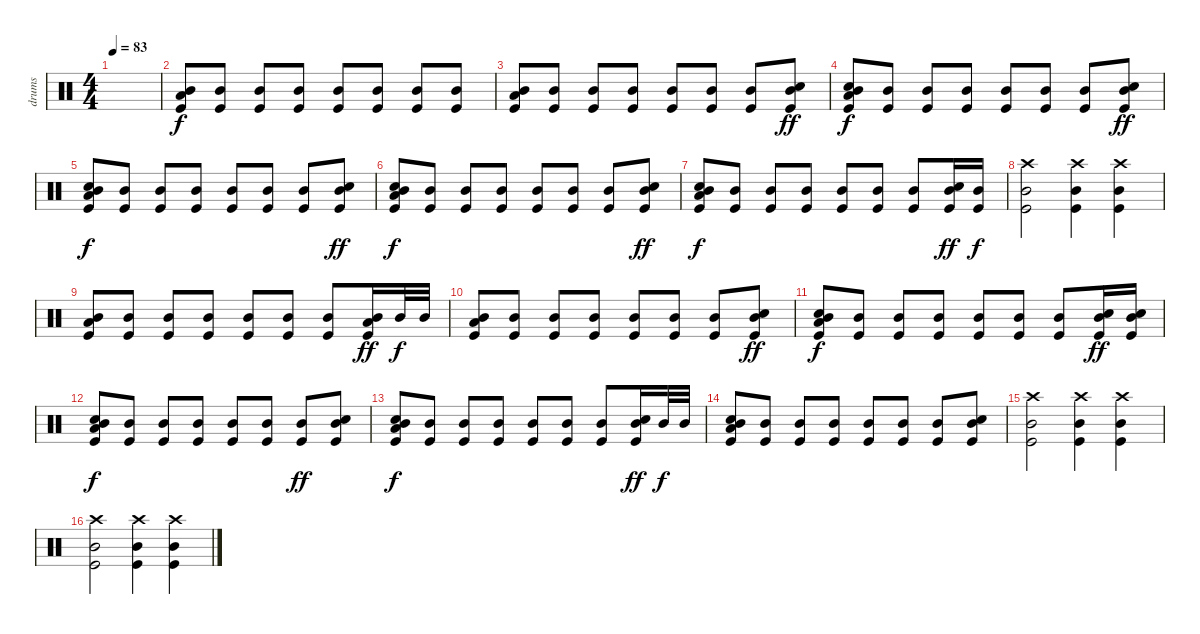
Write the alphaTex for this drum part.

\track ("drums" "drums") {instrument percussion}
\staff {score}
\articulation defaults
\ts (4 4)
\tempo 83
\clef neutral
\ks c
|
("Kick (hit)" "Mid Tom (hit)" "Low Tom (hit)").8 ("Kick (hit)" "Mid Tom (hit)").8 ("Kick (hit)" "Mid Tom (hit)").8 ("Kick (hit)" "Mid Tom (hit)").8 ("Kick (hit)" "Mid Tom (hit)").8 ("Kick (hit)" "Mid Tom (hit)").8 ("Kick (hit)" "Mid Tom (hit)").8 ("Kick (hit)" "Mid Tom (hit)").8 |
("Kick (hit)" "Mid Tom (hit)" "Low Tom (hit)").8 ("Kick (hit)" "Mid Tom (hit)").8 ("Kick (hit)" "Mid Tom (hit)").8 ("Kick (hit)" "Mid Tom (hit)").8 ("Kick (hit)" "Mid Tom (hit)").8 ("Kick (hit)" "Mid Tom (hit)").8 ("Kick (hit)" "Mid Tom (hit)").8 ("Kick (hit)" "Mid Tom (hit)" "Snare (hit) 2").8{dy ff} |
("Kick (hit)" "Mid Tom (hit)" "Low Tom (hit)" "Snare (hit) 2").8{dy f} ("Kick (hit)" "Mid Tom (hit)").8 ("Kick (hit)" "Mid Tom (hit)").8 ("Kick (hit)" "Mid Tom (hit)").8 ("Kick (hit)" "Mid Tom (hit)").8 ("Kick (hit)" "Mid Tom (hit)").8 ("Kick (hit)" "Mid Tom (hit)").8 ("Kick (hit)" "Mid Tom (hit)" "Snare (hit) 2").8{dy ff} |
("Kick (hit)" "Mid Tom (hit)" "Snare (hit) 2" "Low Tom (hit)").8{dy f} ("Kick (hit)" "Mid Tom (hit)").8 ("Kick (hit)" "Mid Tom (hit)").8 ("Kick (hit)" "Mid Tom (hit)").8 ("Kick (hit)" "Mid Tom (hit)").8 ("Kick (hit)" "Mid Tom (hit)").8 ("Kick (hit)" "Mid Tom (hit)").8 ("Kick (hit)" "Mid Tom (hit)" "Snare (hit) 2").8{dy ff} |
("Kick (hit)" "Mid Tom (hit)" "Low Tom (hit)" "Snare (hit) 2").8{dy f} ("Kick (hit)" "Mid Tom (hit)").8 ("Kick (hit)" "Mid Tom (hit)").8 ("Kick (hit)" "Mid Tom (hit)").8 ("Kick (hit)" "Mid Tom (hit)").8 ("Kick (hit)" "Mid Tom (hit)").8 ("Kick (hit)" "Mid Tom (hit)").8 ("Kick (hit)" "Mid Tom (hit)" "Snare (hit) 2").8{dy ff} |
("Kick (hit)" "Mid Tom (hit)" "Low Tom (hit)" "Snare (hit) 2").8{dy f} ("Kick (hit)" "Mid Tom (hit)").8 ("Kick (hit)" "Mid Tom (hit)").8 ("Kick (hit)" "Mid Tom (hit)").8 ("Kick (hit)" "Mid Tom (hit)").8 ("Kick (hit)" "Mid Tom (hit)").8 ("Kick (hit)" "Mid Tom (hit)").8 ("Kick (hit)" "Mid Tom (hit)" "Snare (hit) 2").16{dy ff} ("Kick (hit)" "Mid Tom (hit)").16{dy f} |
("Crash high (hit)" "Mid Tom (hit)" "Kick (hit)").2 ("Crash high (hit)" "Mid Tom (hit)" "Kick (hit)").4 ("Crash high (hit)" "Mid Tom (hit)" "Kick (hit)").4 |
("Kick (hit)" "Mid Tom (hit)" "Low Tom (hit)").8 ("Kick (hit)" "Mid Tom (hit)").8 ("Kick (hit)" "Mid Tom (hit)").8 ("Kick (hit)" "Mid Tom (hit)").8 ("Kick (hit)" "Mid Tom (hit)").8 ("Kick (hit)" "Mid Tom (hit)").8 ("Kick (hit)" "Mid Tom (hit)").8 ("Kick (hit)" "Mid Tom (hit)" "Low Tom (hit)").16{dy ff} "Mid Tom (hit)".32{dy f} "Mid Tom (hit)".32 |
("Kick (hit)" "Mid Tom (hit)" "Low Tom (hit)").8 ("Kick (hit)" "Mid Tom (hit)").8 ("Kick (hit)" "Mid Tom (hit)").8 ("Kick (hit)" "Mid Tom (hit)").8 ("Kick (hit)" "Mid Tom (hit)").8 ("Kick (hit)" "Mid Tom (hit)").8 ("Kick (hit)" "Mid Tom (hit)").8 ("Kick (hit)" "Mid Tom (hit)" "Snare (hit) 2").8{dy ff} |
("Kick (hit)" "Mid Tom (hit)" "Low Tom (hit)" "Snare (hit) 2").8{dy f} ("Kick (hit)" "Mid Tom (hit)").8 ("Kick (hit)" "Mid Tom (hit)").8 ("Kick (hit)" "Mid Tom (hit)").8 ("Kick (hit)" "Mid Tom (hit)").8 ("Kick (hit)" "Mid Tom (hit)").8 ("Kick (hit)" "Mid Tom (hit)").8 ("Kick (hit)" "Mid Tom (hit)" "Snare (hit) 2").16{dy ff} ("Kick (hit)" "Mid Tom (hit)" "Snare (hit) 2").16 |
("Kick (hit)" "Mid Tom (hit)" "Snare (hit) 2" "Low Tom (hit)").8{dy f} ("Kick (hit)" "Mid Tom (hit)").8 ("Kick (hit)" "Mid Tom (hit)").8 ("Kick (hit)" "Mid Tom (hit)").8 ("Kick (hit)" "Mid Tom (hit)").8 ("Kick (hit)" "Mid Tom (hit)").8 ("Kick (hit)" "Mid Tom (hit)").8{dy ff} ("Kick (hit)" "Mid Tom (hit)" "Snare (hit) 2").8 |
("Kick (hit)" "Mid Tom (hit)" "Low Tom (hit)" "Snare (hit) 2").8{dy f} ("Kick (hit)" "Mid Tom (hit)").8 ("Kick (hit)" "Mid Tom (hit)").8 ("Kick (hit)" "Mid Tom (hit)").8 ("Kick (hit)" "Mid Tom (hit)").8 ("Kick (hit)" "Mid Tom (hit)").8 ("Kick (hit)" "Mid Tom (hit)").8 ("Kick (hit)" "Mid Tom (hit)" "Snare (hit) 2").16{dy ff} "Mid Tom (hit)".32{dy f} "Mid Tom (hit)".32 |
("Kick (hit)" "Mid Tom (hit)" "Snare (hit) 2" "Low Tom (hit)").8 ("Kick (hit)" "Mid Tom (hit)").8 ("Kick (hit)" "Mid Tom (hit)").8 ("Kick (hit)" "Mid Tom (hit)").8 ("Kick (hit)" "Mid Tom (hit)").8 ("Kick (hit)" "Mid Tom (hit)").8 ("Kick (hit)" "Mid Tom (hit)").8 ("Kick (hit)" "Mid Tom (hit)" "Snare (hit) 2").8 |
("Crash high (hit)" "Mid Tom (hit)" "Kick (hit)").2 ("Crash high (hit)" "Mid Tom (hit)" "Kick (hit)").4 ("Crash high (hit)" "Mid Tom (hit)" "Kick (hit)").4 |
("Crash high (hit)" "Mid Tom (hit)" "Kick (hit)").2 ("Crash high (hit)" "Mid Tom (hit)" "Kick (hit)").4 ("Crash high (hit)" "Mid Tom (hit)" "Kick (hit)").4
